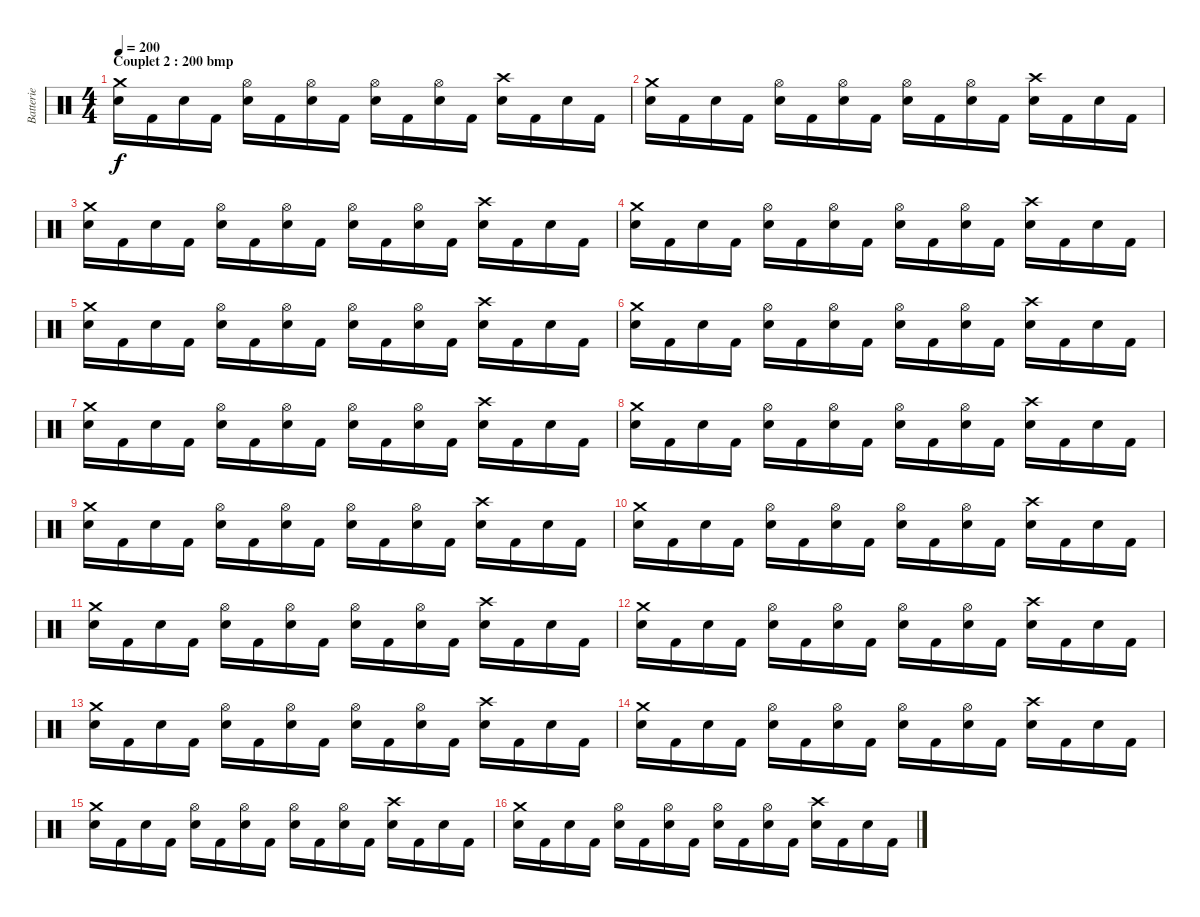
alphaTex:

\track ("Batterie" "Batterie") {instrument percussion}
\staff {score}
\articulation defaults
\ts (4 4)
\section ("" "Couplet 2 : 200 bmp")
\tempo 200
\clef neutral
\ks c
("Snare (hit) 2" "Crash medium (hit)").16{dy f} "Kick (hit) 2".16 "Snare (hit) 2".16 "Kick (hit) 2".16 ("Snare (hit) 2" "Hi-Hat (open)").16 "Kick (hit) 2".16 ("Snare (hit) 2" "Hi-Hat (open)").16 "Kick (hit) 2".16 ("Snare (hit) 2" "Hi-Hat (open)").16 "Kick (hit) 2".16 ("Snare (hit) 2" "Hi-Hat (open)").16 "Kick (hit) 2".16 ("Snare (hit) 2" "Crash high (hit)").16 "Kick (hit) 2".16 "Snare (hit) 2".16 "Kick (hit) 2".16 |
("Snare (hit) 2" "Crash medium (hit)").16 "Kick (hit) 2".16 "Snare (hit) 2".16 "Kick (hit) 2".16 ("Snare (hit) 2" "Hi-Hat (open)").16 "Kick (hit) 2".16 ("Snare (hit) 2" "Hi-Hat (open)").16 "Kick (hit) 2".16 ("Snare (hit) 2" "Hi-Hat (open)").16 "Kick (hit) 2".16 ("Snare (hit) 2" "Hi-Hat (open)").16 "Kick (hit) 2".16 ("Snare (hit) 2" "Crash high (hit)").16 "Kick (hit) 2".16 "Snare (hit) 2".16 "Kick (hit) 2".16 |
("Snare (hit) 2" "Crash medium (hit)").16 "Kick (hit) 2".16 "Snare (hit) 2".16 "Kick (hit) 2".16 ("Snare (hit) 2" "Hi-Hat (open)").16 "Kick (hit) 2".16 ("Snare (hit) 2" "Hi-Hat (open)").16 "Kick (hit) 2".16 ("Snare (hit) 2" "Hi-Hat (open)").16 "Kick (hit) 2".16 ("Snare (hit) 2" "Hi-Hat (open)").16 "Kick (hit) 2".16 ("Snare (hit) 2" "Crash high (hit)").16 "Kick (hit) 2".16 "Snare (hit) 2".16 "Kick (hit) 2".16 |
("Snare (hit) 2" "Crash medium (hit)").16 "Kick (hit) 2".16 "Snare (hit) 2".16 "Kick (hit) 2".16 ("Snare (hit) 2" "Hi-Hat (open)").16 "Kick (hit) 2".16 ("Snare (hit) 2" "Hi-Hat (open)").16 "Kick (hit) 2".16 ("Snare (hit) 2" "Hi-Hat (open)").16 "Kick (hit) 2".16 ("Snare (hit) 2" "Hi-Hat (open)").16 "Kick (hit) 2".16 ("Snare (hit) 2" "Crash high (hit)").16 "Kick (hit) 2".16 "Snare (hit) 2".16 "Kick (hit) 2".16 |
("Snare (hit) 2" "Crash medium (hit)").16 "Kick (hit) 2".16 "Snare (hit) 2".16 "Kick (hit) 2".16 ("Snare (hit) 2" "Hi-Hat (open)").16 "Kick (hit) 2".16 ("Snare (hit) 2" "Hi-Hat (open)").16 "Kick (hit) 2".16 ("Snare (hit) 2" "Hi-Hat (open)").16 "Kick (hit) 2".16 ("Snare (hit) 2" "Hi-Hat (open)").16 "Kick (hit) 2".16 ("Snare (hit) 2" "Crash high (hit)").16 "Kick (hit) 2".16 "Snare (hit) 2".16 "Kick (hit) 2".16 |
("Snare (hit) 2" "Crash medium (hit)").16 "Kick (hit) 2".16 "Snare (hit) 2".16 "Kick (hit) 2".16 ("Snare (hit) 2" "Hi-Hat (open)").16 "Kick (hit) 2".16 ("Snare (hit) 2" "Hi-Hat (open)").16 "Kick (hit) 2".16 ("Snare (hit) 2" "Hi-Hat (open)").16 "Kick (hit) 2".16 ("Snare (hit) 2" "Hi-Hat (open)").16 "Kick (hit) 2".16 ("Snare (hit) 2" "Crash high (hit)").16 "Kick (hit) 2".16 "Snare (hit) 2".16 "Kick (hit) 2".16 |
("Snare (hit) 2" "Crash medium (hit)").16 "Kick (hit) 2".16 "Snare (hit) 2".16 "Kick (hit) 2".16 ("Snare (hit) 2" "Hi-Hat (open)").16 "Kick (hit) 2".16 ("Snare (hit) 2" "Hi-Hat (open)").16 "Kick (hit) 2".16 ("Snare (hit) 2" "Hi-Hat (open)").16 "Kick (hit) 2".16 ("Snare (hit) 2" "Hi-Hat (open)").16 "Kick (hit) 2".16 ("Snare (hit) 2" "Crash high (hit)").16 "Kick (hit) 2".16 "Snare (hit) 2".16 "Kick (hit) 2".16 |
("Snare (hit) 2" "Crash medium (hit)").16 "Kick (hit) 2".16 "Snare (hit) 2".16 "Kick (hit) 2".16 ("Snare (hit) 2" "Hi-Hat (open)").16 "Kick (hit) 2".16 ("Snare (hit) 2" "Hi-Hat (open)").16 "Kick (hit) 2".16 ("Snare (hit) 2" "Hi-Hat (open)").16 "Kick (hit) 2".16 ("Snare (hit) 2" "Hi-Hat (open)").16 "Kick (hit) 2".16 ("Snare (hit) 2" "Crash high (hit)").16 "Kick (hit) 2".16 "Snare (hit) 2".16 "Kick (hit) 2".16 |
("Snare (hit) 2" "Crash medium (hit)").16 "Kick (hit) 2".16 "Snare (hit) 2".16 "Kick (hit) 2".16 ("Snare (hit) 2" "Hi-Hat (open)").16 "Kick (hit) 2".16 ("Snare (hit) 2" "Hi-Hat (open)").16 "Kick (hit) 2".16 ("Snare (hit) 2" "Hi-Hat (open)").16 "Kick (hit) 2".16 ("Snare (hit) 2" "Hi-Hat (open)").16 "Kick (hit) 2".16 ("Snare (hit) 2" "Crash high (hit)").16 "Kick (hit) 2".16 "Snare (hit) 2".16 "Kick (hit) 2".16 |
("Snare (hit) 2" "Crash medium (hit)").16 "Kick (hit) 2".16 "Snare (hit) 2".16 "Kick (hit) 2".16 ("Snare (hit) 2" "Hi-Hat (open)").16 "Kick (hit) 2".16 ("Snare (hit) 2" "Hi-Hat (open)").16 "Kick (hit) 2".16 ("Snare (hit) 2" "Hi-Hat (open)").16 "Kick (hit) 2".16 ("Snare (hit) 2" "Hi-Hat (open)").16 "Kick (hit) 2".16 ("Snare (hit) 2" "Crash high (hit)").16 "Kick (hit) 2".16 "Snare (hit) 2".16 "Kick (hit) 2".16 |
("Snare (hit) 2" "Crash medium (hit)").16 "Kick (hit) 2".16 "Snare (hit) 2".16 "Kick (hit) 2".16 ("Snare (hit) 2" "Hi-Hat (open)").16 "Kick (hit) 2".16 ("Snare (hit) 2" "Hi-Hat (open)").16 "Kick (hit) 2".16 ("Snare (hit) 2" "Hi-Hat (open)").16 "Kick (hit) 2".16 ("Snare (hit) 2" "Hi-Hat (open)").16 "Kick (hit) 2".16 ("Snare (hit) 2" "Crash high (hit)").16 "Kick (hit) 2".16 "Snare (hit) 2".16 "Kick (hit) 2".16 |
("Snare (hit) 2" "Crash medium (hit)").16 "Kick (hit) 2".16 "Snare (hit) 2".16 "Kick (hit) 2".16 ("Snare (hit) 2" "Hi-Hat (open)").16 "Kick (hit) 2".16 ("Snare (hit) 2" "Hi-Hat (open)").16 "Kick (hit) 2".16 ("Snare (hit) 2" "Hi-Hat (open)").16 "Kick (hit) 2".16 ("Snare (hit) 2" "Hi-Hat (open)").16 "Kick (hit) 2".16 ("Snare (hit) 2" "Crash high (hit)").16 "Kick (hit) 2".16 "Snare (hit) 2".16 "Kick (hit) 2".16 |
("Snare (hit) 2" "Crash medium (hit)").16 "Kick (hit) 2".16 "Snare (hit) 2".16 "Kick (hit) 2".16 ("Snare (hit) 2" "Hi-Hat (open)").16 "Kick (hit) 2".16 ("Snare (hit) 2" "Hi-Hat (open)").16 "Kick (hit) 2".16 ("Snare (hit) 2" "Hi-Hat (open)").16 "Kick (hit) 2".16 ("Snare (hit) 2" "Hi-Hat (open)").16 "Kick (hit) 2".16 ("Snare (hit) 2" "Crash high (hit)").16 "Kick (hit) 2".16 "Snare (hit) 2".16 "Kick (hit) 2".16 |
("Snare (hit) 2" "Crash medium (hit)").16 "Kick (hit) 2".16 "Snare (hit) 2".16 "Kick (hit) 2".16 ("Snare (hit) 2" "Hi-Hat (open)").16 "Kick (hit) 2".16 ("Snare (hit) 2" "Hi-Hat (open)").16 "Kick (hit) 2".16 ("Snare (hit) 2" "Hi-Hat (open)").16 "Kick (hit) 2".16 ("Snare (hit) 2" "Hi-Hat (open)").16 "Kick (hit) 2".16 ("Snare (hit) 2" "Crash high (hit)").16 "Kick (hit) 2".16 "Snare (hit) 2".16 "Kick (hit) 2".16 |
("Snare (hit) 2" "Crash medium (hit)").16 "Kick (hit) 2".16 "Snare (hit) 2".16 "Kick (hit) 2".16 ("Snare (hit) 2" "Hi-Hat (open)").16 "Kick (hit) 2".16 ("Snare (hit) 2" "Hi-Hat (open)").16 "Kick (hit) 2".16 ("Snare (hit) 2" "Hi-Hat (open)").16 "Kick (hit) 2".16 ("Snare (hit) 2" "Hi-Hat (open)").16 "Kick (hit) 2".16 ("Snare (hit) 2" "Crash high (hit)").16 "Kick (hit) 2".16 "Snare (hit) 2".16 "Kick (hit) 2".16 |
("Snare (hit) 2" "Crash medium (hit)").16 "Kick (hit) 2".16 "Snare (hit) 2".16 "Kick (hit) 2".16 ("Snare (hit) 2" "Hi-Hat (open)").16 "Kick (hit) 2".16 ("Snare (hit) 2" "Hi-Hat (open)").16 "Kick (hit) 2".16 ("Snare (hit) 2" "Hi-Hat (open)").16 "Kick (hit) 2".16 ("Snare (hit) 2" "Hi-Hat (open)").16 "Kick (hit) 2".16 ("Snare (hit) 2" "Crash high (hit)").16 "Kick (hit) 2".16 "Snare (hit) 2".16 "Kick (hit) 2".16
